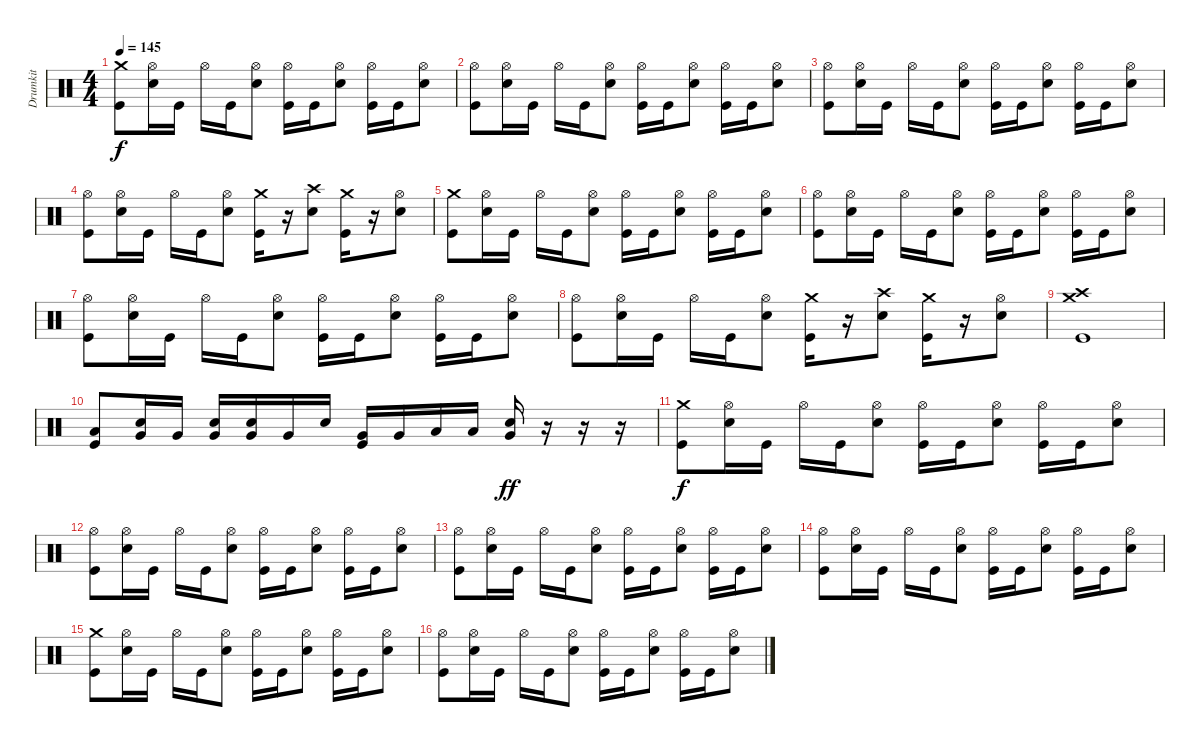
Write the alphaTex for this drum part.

\track ("Drumkit" "Drumkit") {instrument percussion}
\staff {score}
\articulation defaults
\ts (4 4)
\tempo 145
\clef neutral
\ks c
("Kick (hit)" "Crash medium (hit)").8{dy f} ("Snare (hit) 2" "Hi-Hat (open)").16 "Kick (hit)".16 "Hi-Hat (open)".16 "Kick (hit)".16 ("Snare (hit) 2" "Hi-Hat (open)").8 ("Hi-Hat (open)" "Kick (hit)").16 "Kick (hit)".16 ("Snare (hit) 2" "Hi-Hat (open)").8 ("Hi-Hat (open)" "Kick (hit)").16 "Kick (hit)".16 ("Snare (hit) 2" "Hi-Hat (open)").8 |
("Kick (hit)" "Hi-Hat (open)").8 ("Snare (hit) 2" "Hi-Hat (open)").16 "Kick (hit)".16 "Hi-Hat (open)".16 "Kick (hit)".16 ("Snare (hit) 2" "Hi-Hat (open)").8 ("Hi-Hat (open)" "Kick (hit)").16 "Kick (hit)".16 ("Snare (hit) 2" "Hi-Hat (open)").8 ("Hi-Hat (open)" "Kick (hit)").16 "Kick (hit)".16 ("Snare (hit) 2" "Hi-Hat (open)").8 |
("Kick (hit)" "Hi-Hat (open)").8 ("Snare (hit) 2" "Hi-Hat (open)").16 "Kick (hit)".16 "Hi-Hat (open)".16 "Kick (hit)".16 ("Snare (hit) 2" "Hi-Hat (open)").8 ("Hi-Hat (open)" "Kick (hit)").16 "Kick (hit)".16 ("Snare (hit) 2" "Hi-Hat (open)").8 ("Hi-Hat (open)" "Kick (hit)").16 "Kick (hit)".16 ("Snare (hit) 2" "Hi-Hat (open)").8 |
("Kick (hit)" "Hi-Hat (open)").8 ("Snare (hit) 2" "Hi-Hat (open)").16 "Kick (hit)".16 "Hi-Hat (open)".16 "Kick (hit)".16 ("Snare (hit) 2" "Hi-Hat (open)").8 ("Kick (hit)" "Crash medium (hit)").16 r.16 ("Snare (hit) 2" "Crash high (hit)").8 ("Kick (hit)" "Crash medium (hit)").16 r.16 ("Snare (hit) 2" "Hi-Hat (open)").8 |
("Kick (hit)" "Crash medium (hit)").8 ("Snare (hit) 2" "Hi-Hat (open)").16 "Kick (hit)".16 "Hi-Hat (open)".16 "Kick (hit)".16 ("Snare (hit) 2" "Hi-Hat (open)").8 ("Hi-Hat (open)" "Kick (hit)").16 "Kick (hit)".16 ("Snare (hit) 2" "Hi-Hat (open)").8 ("Hi-Hat (open)" "Kick (hit)").16 "Kick (hit)".16 ("Snare (hit) 2" "Hi-Hat (open)").8 |
("Kick (hit)" "Hi-Hat (open)").8 ("Snare (hit) 2" "Hi-Hat (open)").16 "Kick (hit)".16 "Hi-Hat (open)".16 "Kick (hit)".16 ("Snare (hit) 2" "Hi-Hat (open)").8 ("Hi-Hat (open)" "Kick (hit)").16 "Kick (hit)".16 ("Snare (hit) 2" "Hi-Hat (open)").8 ("Hi-Hat (open)" "Kick (hit)").16 "Kick (hit)".16 ("Snare (hit) 2" "Hi-Hat (open)").8 |
("Kick (hit)" "Hi-Hat (open)").8 ("Snare (hit) 2" "Hi-Hat (open)").16 "Kick (hit)".16 "Hi-Hat (open)".16 "Kick (hit)".16 ("Snare (hit) 2" "Hi-Hat (open)").8 ("Hi-Hat (open)" "Kick (hit)").16 "Kick (hit)".16 ("Snare (hit) 2" "Hi-Hat (open)").8 ("Hi-Hat (open)" "Kick (hit)").16 "Kick (hit)".16 ("Snare (hit) 2" "Hi-Hat (open)").8 |
("Kick (hit)" "Hi-Hat (open)").8 ("Snare (hit) 2" "Hi-Hat (open)").16 "Kick (hit)".16 "Hi-Hat (open)".16 "Kick (hit)".16 ("Snare (hit) 2" "Hi-Hat (open)").8 ("Kick (hit)" "Crash medium (hit)").16 r.16 ("Snare (hit) 2" "Crash high (hit)").8 ("Kick (hit)" "Crash medium (hit)").16 r.16 ("Snare (hit) 2" "Hi-Hat (open)").8 |
("Kick (hit)" "Crash high (hit)" "Crash medium (hit)").1 |
("Kick (hit)" "Low Floor Tom (hit)").8 ("Very Low Tom (hit)" "Snare (hit) 2").16 "Very Low Tom (hit)".16 ("Very Low Tom (hit)" "Snare (hit) 2").16 ("Very Low Tom (hit)" "Snare (hit) 2").16 "Very Low Tom (hit)".16 "Snare (hit) 2".16 ("Kick (hit)" "Very Low Tom (hit)").16 "Very Low Tom (hit)".16 "Low Tom (hit)".16 "Low Tom (hit)".16 ("Snare (hit) 2" "Very Low Tom (hit)").16{dy ff} r.16 r.16 r.16 |
("Kick (hit)" "Crash medium (hit)").8{dy f} ("Snare (hit) 2" "Hi-Hat (open)").16 "Kick (hit)".16 "Hi-Hat (open)".16 "Kick (hit)".16 ("Snare (hit) 2" "Hi-Hat (open)").8 ("Hi-Hat (open)" "Kick (hit)").16 "Kick (hit)".16 ("Snare (hit) 2" "Hi-Hat (open)").8 ("Hi-Hat (open)" "Kick (hit)").16 "Kick (hit)".16 ("Snare (hit) 2" "Hi-Hat (open)").8 |
("Kick (hit)" "Hi-Hat (open)").8 ("Snare (hit) 2" "Hi-Hat (open)").16 "Kick (hit)".16 "Hi-Hat (open)".16 "Kick (hit)".16 ("Snare (hit) 2" "Hi-Hat (open)").8 ("Hi-Hat (open)" "Kick (hit)").16 "Kick (hit)".16 ("Snare (hit) 2" "Hi-Hat (open)").8 ("Hi-Hat (open)" "Kick (hit)").16 "Kick (hit)".16 ("Snare (hit) 2" "Hi-Hat (open)").8 |
("Kick (hit)" "Hi-Hat (open)").8 ("Snare (hit) 2" "Hi-Hat (open)").16 "Kick (hit)".16 "Hi-Hat (open)".16 "Kick (hit)".16 ("Snare (hit) 2" "Hi-Hat (open)").8 ("Hi-Hat (open)" "Kick (hit)").16 "Kick (hit)".16 ("Snare (hit) 2" "Hi-Hat (open)").8 ("Hi-Hat (open)" "Kick (hit)").16 "Kick (hit)".16 ("Snare (hit) 2" "Hi-Hat (open)").8 |
("Kick (hit)" "Hi-Hat (open)").8 ("Snare (hit) 2" "Hi-Hat (open)").16 "Kick (hit)".16 "Hi-Hat (open)".16 "Kick (hit)".16 ("Snare (hit) 2" "Hi-Hat (open)").8 ("Hi-Hat (open)" "Kick (hit)").16 "Kick (hit)".16 ("Snare (hit) 2" "Hi-Hat (open)").8 ("Hi-Hat (open)" "Kick (hit)").16 "Kick (hit)".16 ("Snare (hit) 2" "Hi-Hat (open)").8 |
("Kick (hit)" "Crash medium (hit)").8 ("Snare (hit) 2" "Hi-Hat (open)").16 "Kick (hit)".16 "Hi-Hat (open)".16 "Kick (hit)".16 ("Snare (hit) 2" "Hi-Hat (open)").8 ("Hi-Hat (open)" "Kick (hit)").16 "Kick (hit)".16 ("Snare (hit) 2" "Hi-Hat (open)").8 ("Hi-Hat (open)" "Kick (hit)").16 "Kick (hit)".16 ("Snare (hit) 2" "Hi-Hat (open)").8 |
("Kick (hit)" "Hi-Hat (open)").8 ("Snare (hit) 2" "Hi-Hat (open)").16 "Kick (hit)".16 "Hi-Hat (open)".16 "Kick (hit)".16 ("Snare (hit) 2" "Hi-Hat (open)").8 ("Hi-Hat (open)" "Kick (hit)").16 "Kick (hit)".16 ("Snare (hit) 2" "Hi-Hat (open)").8 ("Hi-Hat (open)" "Kick (hit)").16 "Kick (hit)".16 ("Snare (hit) 2" "Hi-Hat (open)").8
